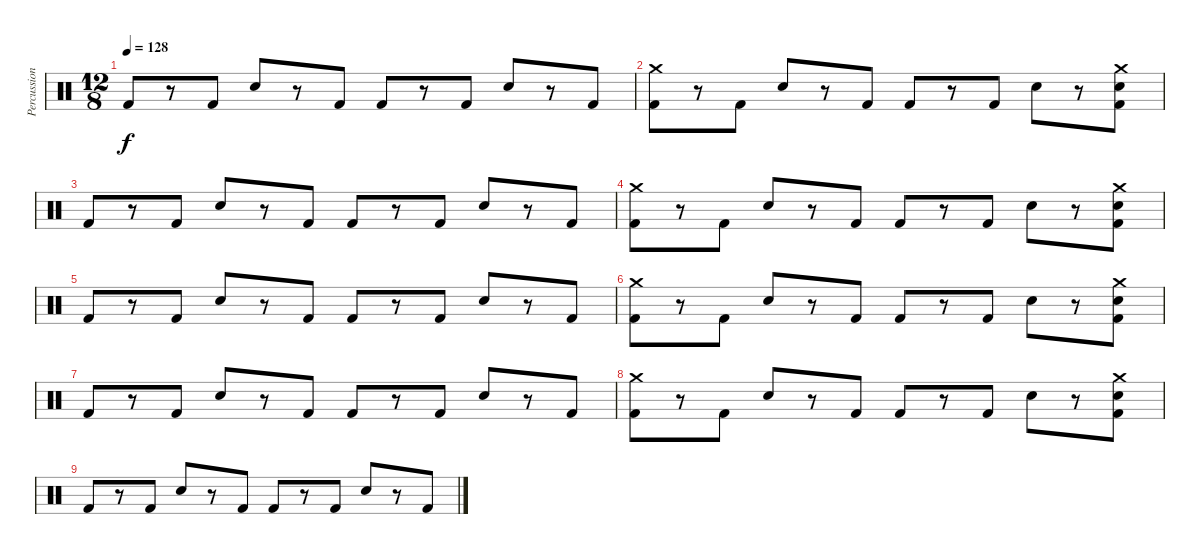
\track ("Percussion" "Percussion") {instrument percussion}
\staff {score}
\articulation defaults
\ts (12 8)
\tempo 128
\clef neutral
\ks c "Kick (hit) 2".8{dy f}
r.8 "Kick (hit) 2".8 "Snare (hit) 2".8 r.8 "Kick (hit) 2".8 "Kick (hit) 2".8 r.8 "Kick (hit) 2".8 "Snare (hit) 2".8 r.8 "Kick (hit) 2".8 |
("Crash medium (hit)" "Kick (hit) 2").8 r.8 "Kick (hit) 2".8 "Snare (hit) 2".8 r.8 "Kick (hit) 2".8 "Kick (hit) 2".8 r.8 "Kick (hit) 2".8 "Snare (hit) 2".8 r.8 ("Crash medium (hit)" "Snare (hit) 2" "Kick (hit) 2").8 |
"Kick (hit) 2".8 r.8 "Kick (hit) 2".8 "Snare (hit) 2".8 r.8 "Kick (hit) 2".8 "Kick (hit) 2".8 r.8 "Kick (hit) 2".8 "Snare (hit) 2".8 r.8 "Kick (hit) 2".8 |
("Crash medium (hit)" "Kick (hit) 2").8 r.8 "Kick (hit) 2".8 "Snare (hit) 2".8 r.8 "Kick (hit) 2".8 "Kick (hit) 2".8 r.8 "Kick (hit) 2".8 "Snare (hit) 2".8 r.8 ("Crash medium (hit)" "Snare (hit) 2" "Kick (hit) 2").8 |
"Kick (hit) 2".8 r.8 "Kick (hit) 2".8 "Snare (hit) 2".8 r.8 "Kick (hit) 2".8 "Kick (hit) 2".8 r.8 "Kick (hit) 2".8 "Snare (hit) 2".8 r.8 "Kick (hit) 2".8 |
("Crash medium (hit)" "Kick (hit) 2").8 r.8 "Kick (hit) 2".8 "Snare (hit) 2".8 r.8 "Kick (hit) 2".8 "Kick (hit) 2".8 r.8 "Kick (hit) 2".8 "Snare (hit) 2".8 r.8 ("Crash medium (hit)" "Snare (hit) 2" "Kick (hit) 2").8 |
"Kick (hit) 2".8 r.8 "Kick (hit) 2".8 "Snare (hit) 2".8 r.8 "Kick (hit) 2".8 "Kick (hit) 2".8 r.8 "Kick (hit) 2".8 "Snare (hit) 2".8 r.8 "Kick (hit) 2".8 |
("Crash medium (hit)" "Kick (hit) 2").8{volume 0} r.8 "Kick (hit) 2".8 "Snare (hit) 2".8 r.8 "Kick (hit) 2".8 "Kick (hit) 2".8 r.8 "Kick (hit) 2".8 "Snare (hit) 2".8 r.8 ("Crash medium (hit)" "Snare (hit) 2" "Kick (hit) 2").8 |
"Kick (hit) 2".8 r.8 "Kick (hit) 2".8 "Snare (hit) 2".8 r.8 "Kick (hit) 2".8 "Kick (hit) 2".8 r.8 "Kick (hit) 2".8 "Snare (hit) 2".8 r.8 "Kick (hit) 2".8
